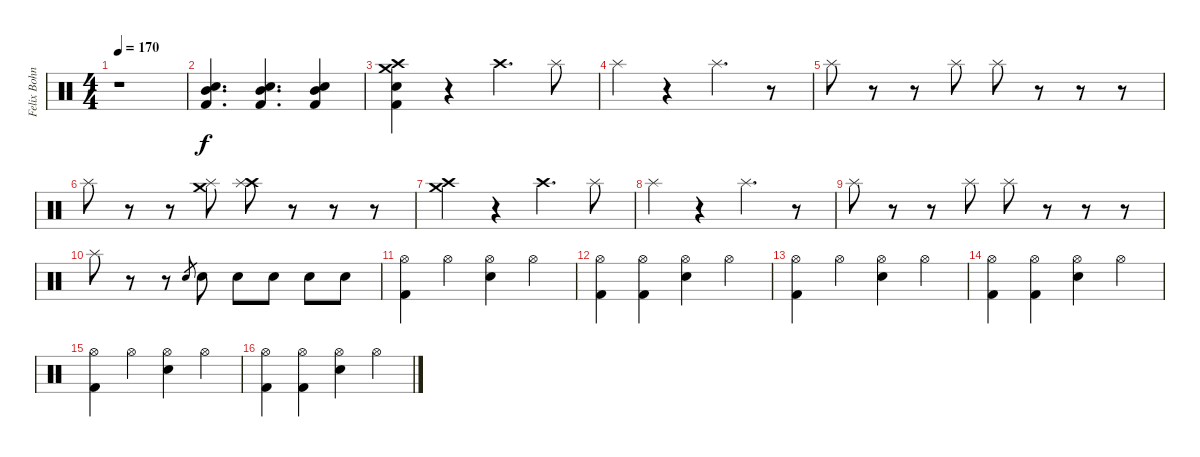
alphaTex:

\track ("Felix Bohnke - Drums" "Felix Bohn") {instrument percussion}
\staff {score}
\articulation defaults
\ts (4 4)
\tempo 170
\clef neutral
\ks c
r.1{dy f} |
("Snare (hit) 2" "Mid Tom (hit)" "Kick (hit) 2").4{d} ("Snare (hit) 2" "Mid Tom (hit)" "Kick (hit) 2").4{d} ("Snare (hit) 2" "Mid Tom (hit)" "Kick (hit) 2").4 |
("Crash high (hit)" "Crash medium (hit)" "Snare (hit) 2" "Kick (hit) 2").4 r.4 "Crash high (hit)".4{d} "Splash (hit)".8 |
"Splash (hit)".4 r.4 "Splash (hit)".4{d} r.8 |
"Splash (hit)".8 r.8 r.8 "Splash (hit)".8 "Splash (hit)".8 r.8 r.8 r.8 |
"Splash (hit)".8 r.8 r.8 ("Crash medium (hit)" "Splash (hit)").8 ("Crash high (hit)" "Splash (hit)").8 r.8 r.8 r.8 |
("Crash high (hit)" "Crash medium (hit)").4 r.4 "Crash high (hit)".4{d} "Splash (hit)".8 |
"Splash (hit)".4 r.4 "Splash (hit)".4{d} r.8 |
"Splash (hit)".8 r.8 r.8 "Splash (hit)".8 "Splash (hit)".8 r.8 r.8 r.8 |
"Splash (hit)".8 r.8 r.8 "Snare (hit) 2".8{gr} "Snare (hit) 2".8 "Snare (hit) 2".8 "Snare (hit) 2".8 "Snare (hit) 2".8 "Snare (hit) 2".8 |
("Hi-Hat (open)" "Kick (hit) 2").4 "Hi-Hat (open)".4 ("Hi-Hat (open)" "Snare (hit) 2").4 "Hi-Hat (open)".4 |
("Hi-Hat (open)" "Kick (hit) 2").4 ("Hi-Hat (open)" "Kick (hit) 2").4 ("Hi-Hat (open)" "Snare (hit) 2").4 "Hi-Hat (open)".4 |
("Hi-Hat (open)" "Kick (hit) 2").4 "Hi-Hat (open)".4 ("Hi-Hat (open)" "Snare (hit) 2").4 "Hi-Hat (open)".4 |
("Hi-Hat (open)" "Kick (hit) 2").4 ("Hi-Hat (open)" "Kick (hit) 2").4 ("Hi-Hat (open)" "Snare (hit) 2").4 "Hi-Hat (open)".4 |
("Hi-Hat (open)" "Kick (hit) 2").4 "Hi-Hat (open)".4 ("Hi-Hat (open)" "Snare (hit) 2").4 "Hi-Hat (open)".4 |
("Hi-Hat (open)" "Kick (hit) 2").4 ("Hi-Hat (open)" "Kick (hit) 2").4 ("Hi-Hat (open)" "Snare (hit) 2").4 "Hi-Hat (open)".4
